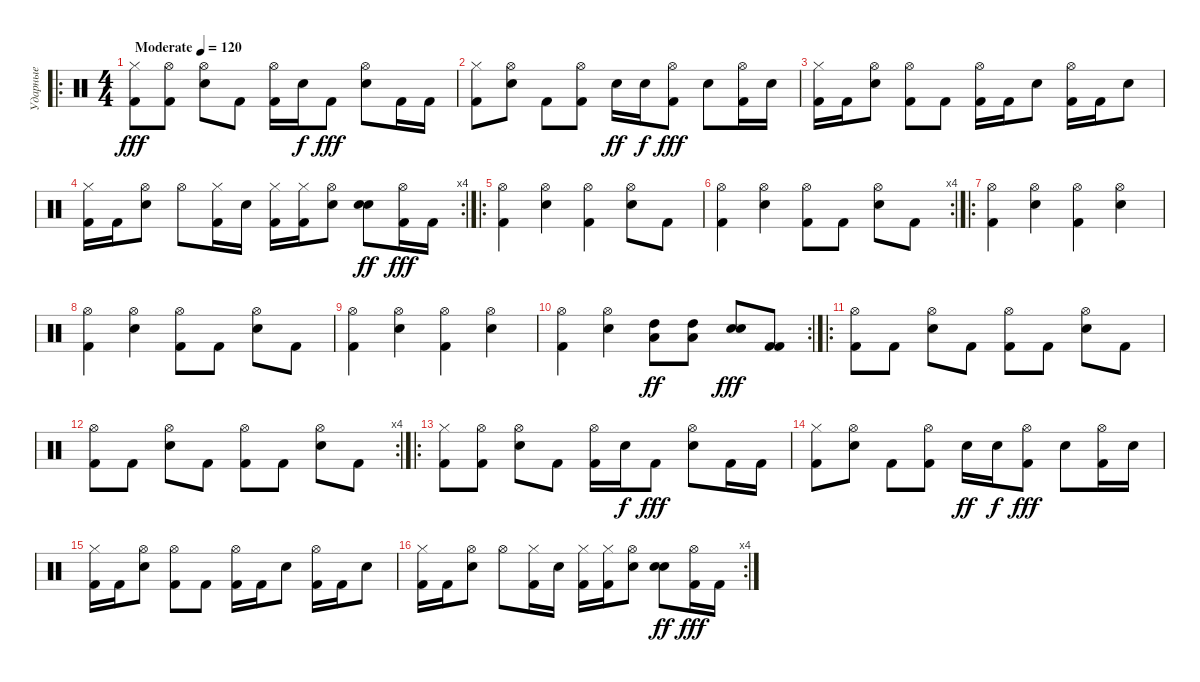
\track ("Ударные" "Ударные") {instrument percussion}
\staff {score}
\articulation defaults
\ro
\ts (4 4)
\tempo (120 "Moderate")
\clef neutral
\ks c
("Hi-Hat (closed)" "Kick (hit) 2").8{dy fff} ("Hi-Hat (open)" "Kick (hit) 2").8 ("Hi-Hat (open)" "Electric Snare (hit)").8 "Kick (hit) 2".8 ("Hi-Hat (open)" "Kick (hit) 2").16 "Electric Snare (hit)".16{dy f} "Kick (hit) 2".8{dy fff} ("Hi-Hat (open)" "Electric Snare (hit)").8 "Kick (hit) 2".16 "Kick (hit) 2".16 |
("Hi-Hat (closed)" "Kick (hit) 2").8 ("Hi-Hat (open)" "Electric Snare (hit)").8 "Kick (hit) 2".8 ("Hi-Hat (open)" "Kick (hit) 2").8 "Electric Snare (hit)".16{dy ff} "Electric Snare (hit)".16{dy f} ("Hi-Hat (open)" "Kick (hit) 2").8{dy fff} "Electric Snare (hit)".8 ("Hi-Hat (open)" "Kick (hit) 2").16 "Electric Snare (hit)".16 |
("Hi-Hat (closed)" "Kick (hit) 2").16 "Kick (hit) 2".16 ("Hi-Hat (open)" "Electric Snare (hit)").8 ("Hi-Hat (open)" "Kick (hit) 2").8 "Kick (hit) 2".8 ("Hi-Hat (open)" "Kick (hit) 2").16 "Kick (hit) 2".16 "Electric Snare (hit)".8 ("Hi-Hat (open)" "Kick (hit) 2").16 "Kick (hit) 2".16 "Electric Snare (hit)".8 |
\rc 4
("Hi-Hat (closed)" "Kick (hit) 2").16 "Kick (hit) 2".16 ("Hi-Hat (open)" "Electric Snare (hit)").8 "Hi-Hat (open)".8 ("Hi-Hat (closed)" "Kick (hit) 2").16 "Electric Snare (hit)".16 ("Hi-Hat (closed)" "Kick (hit) 2").16 ("Hi-Hat (closed)" "Kick (hit) 2").16 ("Hi-Hat (open)" "Electric Snare (hit)").8 ("Electric Snare (hit)" "Electric Snare (hit)").8{bd 60 dy ff} ("Hi-Hat (open)" "Kick (hit) 2").16{dy fff} "Kick (hit) 2".16 |
\ro
("Hi-Hat (open)" "Kick (hit) 2").4 ("Hi-Hat (open)" "Electric Snare (hit)").4 ("Hi-Hat (open)" "Kick (hit) 2").4 ("Hi-Hat (open)" "Electric Snare (hit)").8 "Kick (hit) 2".8 |
\rc 4
("Hi-Hat (open)" "Kick (hit) 2").4 ("Hi-Hat (open)" "Electric Snare (hit)").4 ("Hi-Hat (open)" "Kick (hit) 2").8 "Kick (hit) 2".8 ("Hi-Hat (open)" "Electric Snare (hit)").8 "Kick (hit) 2".8 |
\ro
("Hi-Hat (open)" "Kick (hit) 2").4 ("Hi-Hat (open)" "Electric Snare (hit)").4 ("Hi-Hat (open)" "Kick (hit) 2").4 ("Hi-Hat (open)" "Electric Snare (hit)").4 |
("Hi-Hat (open)" "Kick (hit) 2").4 ("Hi-Hat (open)" "Electric Snare (hit)").4 ("Hi-Hat (open)" "Kick (hit) 2").8 "Kick (hit) 2".8 ("Hi-Hat (open)" "Electric Snare (hit)").8 "Kick (hit) 2".8 |
("Hi-Hat (open)" "Kick (hit) 2").4 ("Hi-Hat (open)" "Electric Snare (hit)").4 ("Hi-Hat (open)" "Kick (hit) 2").4 ("Hi-Hat (open)" "Electric Snare (hit)").4 |
\rc 2
("Hi-Hat (open)" "Kick (hit) 2").4 ("Hi-Hat (open)" "Electric Snare (hit)").4 ("Low Tom (hit)" "High Tom (hit)").8{bd 60 dy ff} ("Low Tom (hit)" "High Tom (hit)").8{bd 60} ("Electric Snare (hit)" "Electric Snare (hit)").8{bd 60 dy fff} ("Kick (hit) 2" "Kick (hit) 2").8{bd 60} |
\ro
("Hi-Hat (open)" "Kick (hit) 2").8 "Kick (hit) 2".8 ("Hi-Hat (open)" "Electric Snare (hit)").8 "Kick (hit) 2".8 ("Hi-Hat (open)" "Kick (hit) 2").8 "Kick (hit) 2".8 ("Hi-Hat (open)" "Electric Snare (hit)").8 "Kick (hit) 2".8 |
\rc 4
("Hi-Hat (open)" "Kick (hit) 2").8 "Kick (hit) 2".8 ("Hi-Hat (open)" "Electric Snare (hit)").8 "Kick (hit) 2".8 ("Hi-Hat (open)" "Kick (hit) 2").8 "Kick (hit) 2".8 ("Hi-Hat (open)" "Electric Snare (hit)").8 "Kick (hit) 2".8 |
\ro
("Hi-Hat (closed)" "Kick (hit) 2").8 ("Hi-Hat (open)" "Kick (hit) 2").8 ("Hi-Hat (open)" "Electric Snare (hit)").8 "Kick (hit) 2".8 ("Hi-Hat (open)" "Kick (hit) 2").16 "Electric Snare (hit)".16{dy f} "Kick (hit) 2".8{dy fff} ("Hi-Hat (open)" "Electric Snare (hit)").8 "Kick (hit) 2".16 "Kick (hit) 2".16 |
("Hi-Hat (closed)" "Kick (hit) 2").8 ("Hi-Hat (open)" "Electric Snare (hit)").8 "Kick (hit) 2".8 ("Hi-Hat (open)" "Kick (hit) 2").8 "Electric Snare (hit)".16{dy ff} "Electric Snare (hit)".16{dy f} ("Hi-Hat (open)" "Kick (hit) 2").8{dy fff} "Electric Snare (hit)".8 ("Hi-Hat (open)" "Kick (hit) 2").16 "Electric Snare (hit)".16 |
("Hi-Hat (closed)" "Kick (hit) 2").16 "Kick (hit) 2".16 ("Hi-Hat (open)" "Electric Snare (hit)").8 ("Hi-Hat (open)" "Kick (hit) 2").8 "Kick (hit) 2".8 ("Hi-Hat (open)" "Kick (hit) 2").16 "Kick (hit) 2".16 "Electric Snare (hit)".8 ("Hi-Hat (open)" "Kick (hit) 2").16 "Kick (hit) 2".16 "Electric Snare (hit)".8 |
\rc 4
("Hi-Hat (closed)" "Kick (hit) 2").16 "Kick (hit) 2".16 ("Hi-Hat (open)" "Electric Snare (hit)").8 "Hi-Hat (open)".8 ("Hi-Hat (closed)" "Kick (hit) 2").16 "Electric Snare (hit)".16 ("Hi-Hat (closed)" "Kick (hit) 2").16 ("Hi-Hat (closed)" "Kick (hit) 2").16 ("Hi-Hat (open)" "Electric Snare (hit)").8 ("Electric Snare (hit)" "Electric Snare (hit)").8{bd 60 dy ff} ("Hi-Hat (open)" "Kick (hit) 2").16{dy fff} "Kick (hit) 2".16
